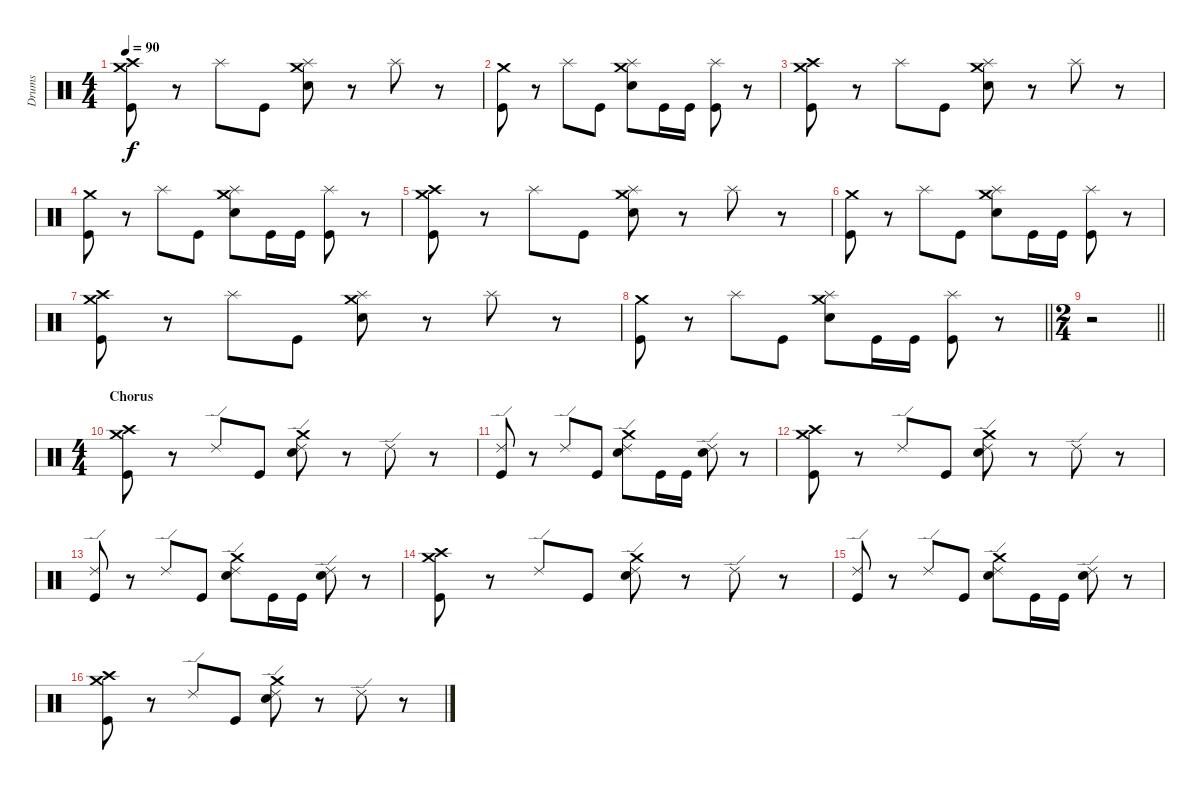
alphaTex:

\track ("Drums" "Drums") {instrument percussion}
\staff {score}
\articulation defaults
\ts (4 4)
\tempo 90
\clef neutral
\ks c
("Crash high (hit)" "Kick (hit)" "Crash medium (hit)").8{dy f} r.8 "Splash (hit)".8 "Kick (hit)".8 ("Splash (hit)" "Snare (hit) 2" "Crash medium (hit)").8 r.8 "Splash (hit)".8 r.8 |
("Crash medium (hit)" "Kick (hit)").8 r.8 "Splash (hit)".8 "Kick (hit)".8 ("Splash (hit)" "Snare (hit) 2" "Crash medium (hit)").8 "Kick (hit)".16 "Kick (hit)".16 ("Splash (hit)" "Kick (hit)").8 r.8 |
("Crash high (hit)" "Kick (hit)" "Crash medium (hit)").8 r.8 "Splash (hit)".8 "Kick (hit)".8 ("Splash (hit)" "Snare (hit) 2" "Crash medium (hit)").8 r.8 "Splash (hit)".8 r.8 |
("Crash medium (hit)" "Kick (hit)").8 r.8 "Splash (hit)".8 "Kick (hit)".8 ("Splash (hit)" "Snare (hit) 2" "Crash medium (hit)").8 "Kick (hit)".16 "Kick (hit)".16 ("Splash (hit)" "Kick (hit)").8 r.8 |
("Crash high (hit)" "Kick (hit)" "Crash medium (hit)").8 r.8 "Splash (hit)".8 "Kick (hit)".8 ("Splash (hit)" "Snare (hit) 2" "Crash medium (hit)").8 r.8 "Splash (hit)".8 r.8 |
("Crash medium (hit)" "Kick (hit)").8 r.8 "Splash (hit)".8 "Kick (hit)".8 ("Splash (hit)" "Snare (hit) 2" "Crash medium (hit)").8 "Kick (hit)".16 "Kick (hit)".16 ("Splash (hit)" "Kick (hit)").8 r.8 |
("Crash high (hit)" "Kick (hit)" "Crash medium (hit)").8 r.8 "Splash (hit)".8 "Kick (hit)".8 ("Splash (hit)" "Snare (hit) 2" "Crash medium (hit)").8 r.8 "Splash (hit)".8 r.8 |
\barLineRight lightlight
("Crash medium (hit)" "Kick (hit)").8 r.8 "Splash (hit)".8 "Kick (hit)".8 ("Splash (hit)" "Snare (hit) 2" "Crash medium (hit)").8 "Kick (hit)".16 "Kick (hit)".16 ("Splash (hit)" "Kick (hit)").8 r.8 |
\ts (2 4)
\section ("" "")
\barLineRight lightlight
r.2 |
\ts (4 4)
\section ("" "Chorus")
("Crash high (hit)" "Kick (hit)" "Crash medium (hit)").8 r.8 "Ride (edge) 2".8 "Kick (hit)".8 ("Ride (edge) 2" "Snare (hit) 2" "Crash medium (hit)").8 r.8 "Ride (edge) 2".8 r.8 |
("Ride (edge) 2" "Kick (hit)").8 r.8 "Ride (edge) 2".8 "Kick (hit)".8 ("Ride (edge) 2" "Snare (hit) 2" "Crash medium (hit)").8 "Kick (hit)".16 "Kick (hit)".16 ("Ride (edge) 2" "Snare (hit) 2").8 r.8 |
("Crash high (hit)" "Kick (hit)" "Crash medium (hit)").8 r.8 "Ride (edge) 2".8 "Kick (hit)".8 ("Ride (edge) 2" "Snare (hit) 2" "Crash medium (hit)").8 r.8 "Ride (edge) 2".8 r.8 |
("Ride (edge) 2" "Kick (hit)").8 r.8 "Ride (edge) 2".8 "Kick (hit)".8 ("Ride (edge) 2" "Snare (hit) 2" "Crash medium (hit)").8 "Kick (hit)".16 "Kick (hit)".16 ("Ride (edge) 2" "Snare (hit) 2").8 r.8 |
("Crash high (hit)" "Kick (hit)" "Crash medium (hit)").8 r.8 "Ride (edge) 2".8 "Kick (hit)".8 ("Ride (edge) 2" "Snare (hit) 2" "Crash medium (hit)").8 r.8 "Ride (edge) 2".8 r.8 |
("Ride (edge) 2" "Kick (hit)").8 r.8 "Ride (edge) 2".8 "Kick (hit)".8 ("Ride (edge) 2" "Snare (hit) 2" "Crash medium (hit)").8 "Kick (hit)".16 "Kick (hit)".16 ("Ride (edge) 2" "Snare (hit) 2").8 r.8 |
("Crash high (hit)" "Kick (hit)" "Crash medium (hit)").8 r.8 "Ride (edge) 2".8 "Kick (hit)".8 ("Ride (edge) 2" "Snare (hit) 2" "Crash medium (hit)").8 r.8 "Ride (edge) 2".8 r.8
